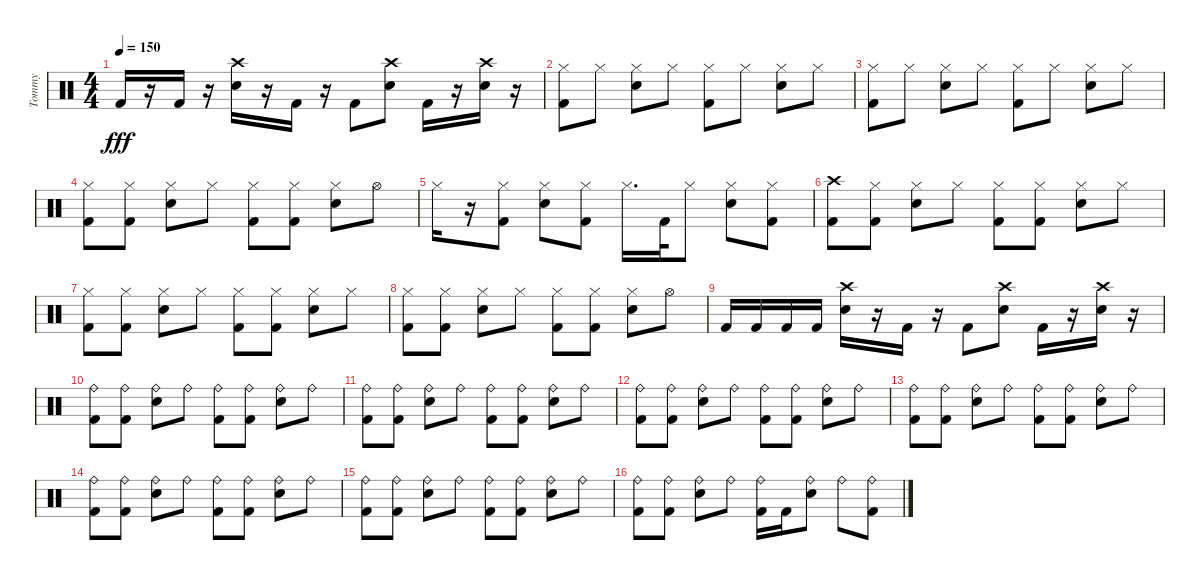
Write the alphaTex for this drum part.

\track ("Tommy" "Tommy") {instrument percussion}
\staff {score}
\articulation defaults
\ts (4 4)
\tempo 150
\clef neutral
\ks c "Kick (hit) 2".16{dy fff}
r.16 "Kick (hit) 2".16 r.16 ("Snare (hit) 2" "Crash high (hit)").16 r.16 "Kick (hit) 2".16 r.16 "Kick (hit) 2".8 ("Snare (hit) 2" "Crash high (hit)").8 "Kick (hit) 2".16 r.16 ("Snare (hit) 2" "Crash high (hit)").16 r.16 |
("Hi-Hat (closed)" "Kick (hit) 2").8 "Hi-Hat (closed)".8 ("Snare (hit) 2" "Hi-Hat (closed)").8 "Hi-Hat (closed)".8 ("Kick (hit) 2" "Hi-Hat (closed)").8 "Hi-Hat (closed)".8 ("Snare (hit) 2" "Hi-Hat (closed)").8 "Hi-Hat (closed)".8 |
("Kick (hit) 2" "Hi-Hat (closed)").8 "Hi-Hat (closed)".8 ("Snare (hit) 2" "Hi-Hat (closed)").8 "Hi-Hat (closed)".8 ("Kick (hit) 2" "Hi-Hat (closed)").8 "Hi-Hat (closed)".8 ("Snare (hit) 2" "Hi-Hat (closed)").8 "Hi-Hat (closed)".8 |
("Kick (hit) 2" "Hi-Hat (closed)").8 ("Kick (hit) 2" "Hi-Hat (closed)").8 ("Snare (hit) 2" "Hi-Hat (closed)").8 "Hi-Hat (closed)".8 ("Kick (hit) 2" "Hi-Hat (closed)").8 ("Kick (hit) 2" "Hi-Hat (closed)").8 ("Snare (hit) 2" "Hi-Hat (closed)").8 "Hi-Hat (open)".8 |
"Hi-Hat (closed)".16 r.16 ("Kick (hit) 2" "Hi-Hat (closed)").8 ("Snare (hit) 2" "Hi-Hat (closed)").8 ("Hi-Hat (closed)" "Kick (hit) 2").8 "Hi-Hat (closed)".16{d} "Kick (hit) 2".32 "Hi-Hat (closed)".8 ("Snare (hit) 2" "Hi-Hat (closed)").8 ("Hi-Hat (closed)" "Kick (hit) 2").8 |
("Kick (hit) 2" "Crash high (hit)").8 ("Kick (hit) 2" "Hi-Hat (closed)").8 ("Snare (hit) 2" "Hi-Hat (closed)").8 "Hi-Hat (closed)".8 ("Kick (hit) 2" "Hi-Hat (closed)").8 ("Kick (hit) 2" "Hi-Hat (closed)").8 ("Snare (hit) 2" "Hi-Hat (closed)").8 "Hi-Hat (closed)".8 |
("Kick (hit) 2" "Hi-Hat (closed)").8 ("Kick (hit) 2" "Hi-Hat (closed)").8 ("Snare (hit) 2" "Hi-Hat (closed)").8 "Hi-Hat (closed)".8 ("Kick (hit) 2" "Hi-Hat (closed)").8 ("Kick (hit) 2" "Hi-Hat (closed)").8 ("Snare (hit) 2" "Hi-Hat (closed)").8 "Hi-Hat (closed)".8 |
("Hi-Hat (closed)" "Kick (hit) 2").8 ("Kick (hit) 2" "Hi-Hat (closed)").8 ("Snare (hit) 2" "Hi-Hat (closed)").8 "Hi-Hat (closed)".8 ("Kick (hit) 2" "Hi-Hat (closed)").8 ("Kick (hit) 2" "Hi-Hat (closed)").8 ("Snare (hit) 2" "Hi-Hat (closed)").8 "Hi-Hat (open)".8 |
"Kick (hit) 2".16 "Kick (hit) 2".16 "Kick (hit) 2".16 "Kick (hit) 2".16 ("Snare (hit) 2" "Crash high (hit)").16 r.16 "Kick (hit) 2".16 r.16 "Kick (hit) 2".8 ("Snare (hit) 2" "Crash high (hit)").8 "Kick (hit) 2".16 r.16 ("Snare (hit) 2" "Crash high (hit)").16 r.16 |
("Ride (bell)" "Kick (hit) 2").8 ("Kick (hit) 2" "Ride (bell)").8 ("Snare (hit) 2" "Ride (bell)").8 "Ride (bell)".8 ("Kick (hit) 2" "Ride (bell)").8 ("Kick (hit) 2" "Ride (bell)").8 ("Snare (hit) 2" "Ride (bell)").8 "Ride (bell)".8 |
("Ride (bell)" "Kick (hit) 2").8 ("Kick (hit) 2" "Ride (bell)").8 ("Snare (hit) 2" "Ride (bell)").8 "Ride (bell)".8 ("Kick (hit) 2" "Ride (bell)").8 ("Kick (hit) 2" "Ride (bell)").8 ("Snare (hit) 2" "Ride (bell)").8 "Ride (bell)".8 |
("Ride (bell)" "Kick (hit) 2").8 ("Kick (hit) 2" "Ride (bell)").8 ("Snare (hit) 2" "Ride (bell)").8 "Ride (bell)".8 ("Kick (hit) 2" "Ride (bell)").8 ("Kick (hit) 2" "Ride (bell)").8 ("Snare (hit) 2" "Ride (bell)").8 "Ride (bell)".8 |
("Ride (bell)" "Kick (hit) 2").8 ("Kick (hit) 2" "Ride (bell)").8 ("Snare (hit) 2" "Ride (bell)").8 "Ride (bell)".8 ("Kick (hit) 2" "Ride (bell)").8 ("Kick (hit) 2" "Ride (bell)").8 ("Snare (hit) 2" "Ride (bell)").8 "Ride (bell)".8 |
("Ride (bell)" "Kick (hit) 2").8 ("Kick (hit) 2" "Ride (bell)").8 ("Snare (hit) 2" "Ride (bell)").8 "Ride (bell)".8 ("Kick (hit) 2" "Ride (bell)").8 ("Kick (hit) 2" "Ride (bell)").8 ("Snare (hit) 2" "Ride (bell)").8 "Ride (bell)".8 |
("Kick (hit) 2" "Ride (bell)").8 ("Kick (hit) 2" "Ride (bell)").8 ("Snare (hit) 2" "Ride (bell)").8 "Ride (bell)".8 ("Kick (hit) 2" "Ride (bell)").8 ("Kick (hit) 2" "Ride (bell)").8 ("Snare (hit) 2" "Ride (bell)").8 "Ride (bell)".8 |
("Kick (hit) 2" "Ride (bell)").8 ("Kick (hit) 2" "Ride (bell)").8 ("Snare (hit) 2" "Ride (bell)").8 "Ride (bell)".8 ("Ride (bell)" "Kick (hit) 2").16 "Kick (hit) 2".16 ("Ride (bell)" "Snare (hit) 2").8 "Ride (bell)".8 ("Ride (bell)" "Kick (hit) 2").8
